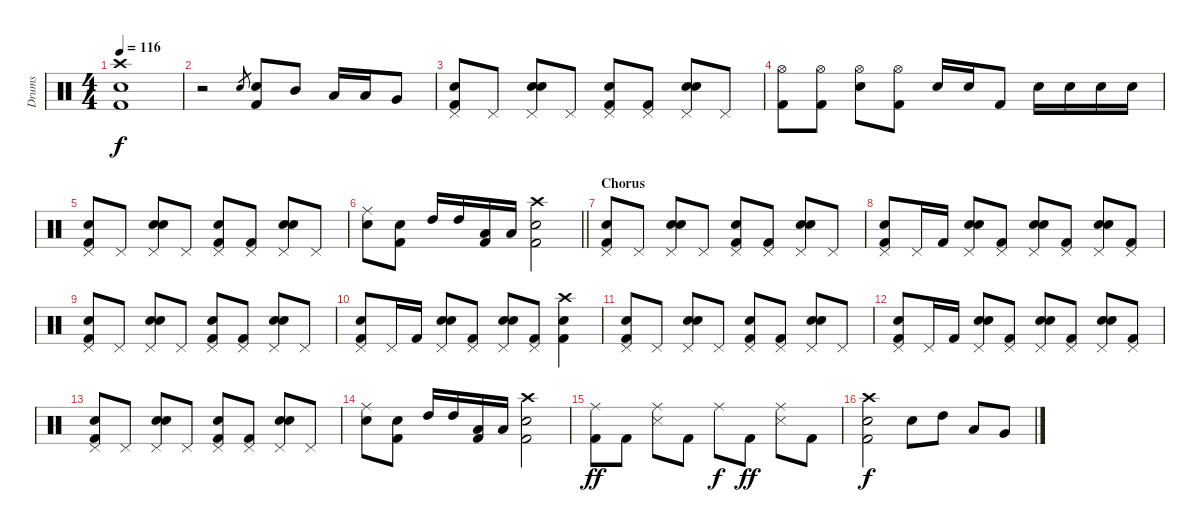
\track ("Drums" "Drums") {instrument percussion}
\staff {score}
\articulation defaults
\ts (4 4)
\tempo 116
\clef neutral
\ks c
("Crash high (hit)" "Electric Snare (hit)" "Kick (hit) 2").1{dy f} |
r.2 "Snare (hit) 2".8{gr} ("Snare (hit) 2" "Kick (hit) 2").8 "Mid Tom (hit)".8 "Low Tom (hit)".16 "Low Tom (hit)".16 "Very Low Tom (hit)".8 |
("Hand Clap (hit)" "Pedal Hi-Hat (hit)" "Kick (hit) 2").8{volume 16} "Pedal Hi-Hat (hit)".8{volume 16} ("Hand Clap (hit)" "Pedal Hi-Hat (hit)" "Snare (hit) 2").8{volume 16} "Pedal Hi-Hat (hit)".8{volume 16} ("Hand Clap (hit)" "Pedal Hi-Hat (hit)" "Kick (hit) 2").8{volume 16} ("Pedal Hi-Hat (hit)" "Kick (hit) 2").8{volume 16} ("Hand Clap (hit)" "Pedal Hi-Hat (hit)" "Snare (hit) 2").8{volume 16} "Pedal Hi-Hat (hit)".8{volume 16} |
("Hi-Hat (open)" "Kick (hit) 2").8{volume 16} ("Hi-Hat (open)" "Kick (hit) 2").8{volume 16} ("Hi-Hat (open)" "Snare (hit) 2").8{volume 16} ("Hi-Hat (open)" "Kick (hit) 2").8{volume 16} "Snare (hit) 2".16{volume 16} "Snare (hit) 2".16{volume 16} "Kick (hit) 2".8{volume 16} "Snare (hit) 2".16{volume 16} "Snare (hit) 2".16{volume 16} "Snare (hit) 2".16{volume 16} "Snare (hit) 2".16{volume 16} |
("Hand Clap (hit)" "Pedal Hi-Hat (hit)" "Kick (hit) 2").8{volume 16} "Pedal Hi-Hat (hit)".8{volume 16} ("Hand Clap (hit)" "Pedal Hi-Hat (hit)" "Snare (hit) 2").8{volume 16} "Pedal Hi-Hat (hit)".8{volume 16} ("Hand Clap (hit)" "Pedal Hi-Hat (hit)" "Kick (hit) 2").8{volume 16} ("Pedal Hi-Hat (hit)" "Kick (hit) 2").8{volume 16} ("Hand Clap (hit)" "Pedal Hi-Hat (hit)" "Snare (hit) 2").8{volume 16} "Pedal Hi-Hat (hit)".8{volume 16} |
\barLineRight lightlight
("Ride (middle)" "Snare (hit) 2").8{volume 16} ("Snare (hit) 2" "Kick (hit) 2").8{volume 16} "High Tom (hit)".16{volume 16} "High Tom (hit)".16{volume 16} ("Low Tom (hit)" "Kick (hit) 2").16{volume 16} "Low Tom (hit)".16{volume 16} ("Crash high (hit)" "Electric Snare (hit)" "Kick (hit) 2").2{volume 16} |
\section ("" "Chorus")
("Hand Clap (hit)" "Pedal Hi-Hat (hit)" "Kick (hit) 2").8{volume 16} "Pedal Hi-Hat (hit)".8{volume 16} ("Hand Clap (hit)" "Pedal Hi-Hat (hit)" "Snare (hit) 2").8{volume 16} "Pedal Hi-Hat (hit)".8{volume 16} ("Hand Clap (hit)" "Pedal Hi-Hat (hit)" "Kick (hit) 2").8{volume 16} ("Pedal Hi-Hat (hit)" "Kick (hit) 2").8{volume 16} ("Hand Clap (hit)" "Pedal Hi-Hat (hit)" "Snare (hit) 2").8{volume 16} "Pedal Hi-Hat (hit)".8{volume 16} |
("Hand Clap (hit)" "Pedal Hi-Hat (hit)" "Kick (hit) 2").8{volume 16} "Pedal Hi-Hat (hit)".16{volume 16} "Kick (hit) 2".16{volume 16} ("Hand Clap (hit)" "Pedal Hi-Hat (hit)" "Snare (hit) 2").8{volume 16} ("Pedal Hi-Hat (hit)" "Kick (hit) 2").8{volume 16} ("Hand Clap (hit)" "Pedal Hi-Hat (hit)" "Snare (hit) 2").8{volume 16} ("Pedal Hi-Hat (hit)" "Kick (hit) 2").8{volume 16} ("Hand Clap (hit)" "Pedal Hi-Hat (hit)" "Snare (hit) 2").8{volume 16} ("Pedal Hi-Hat (hit)" "Kick (hit) 2").8{volume 16} |
("Hand Clap (hit)" "Pedal Hi-Hat (hit)" "Kick (hit) 2").8{volume 16} "Pedal Hi-Hat (hit)".8{volume 16} ("Hand Clap (hit)" "Pedal Hi-Hat (hit)" "Snare (hit) 2").8{volume 16} "Pedal Hi-Hat (hit)".8{volume 16} ("Hand Clap (hit)" "Pedal Hi-Hat (hit)" "Kick (hit) 2").8{volume 16} ("Pedal Hi-Hat (hit)" "Kick (hit) 2").8{volume 16} ("Hand Clap (hit)" "Pedal Hi-Hat (hit)" "Snare (hit) 2").8{volume 16} "Pedal Hi-Hat (hit)".8{volume 16} |
("Hand Clap (hit)" "Pedal Hi-Hat (hit)" "Kick (hit) 2").8{volume 16} "Pedal Hi-Hat (hit)".16{volume 16} "Kick (hit) 2".16{volume 16} ("Hand Clap (hit)" "Pedal Hi-Hat (hit)" "Snare (hit) 2").8{volume 16} ("Pedal Hi-Hat (hit)" "Kick (hit) 2").8{volume 16} ("Hand Clap (hit)" "Pedal Hi-Hat (hit)" "Snare (hit) 2").8{volume 16} ("Pedal Hi-Hat (hit)" "Kick (hit) 2").8{volume 16} ("Crash high (hit)" "Electric Snare (hit)" "Kick (hit) 2").4{volume 16} |
("Hand Clap (hit)" "Pedal Hi-Hat (hit)" "Kick (hit) 2").8{volume 16} "Pedal Hi-Hat (hit)".8{volume 16} ("Hand Clap (hit)" "Pedal Hi-Hat (hit)" "Snare (hit) 2").8{volume 16} "Pedal Hi-Hat (hit)".8{volume 16} ("Hand Clap (hit)" "Pedal Hi-Hat (hit)" "Kick (hit) 2").8{volume 16} ("Pedal Hi-Hat (hit)" "Kick (hit) 2").8{volume 16} ("Hand Clap (hit)" "Pedal Hi-Hat (hit)" "Snare (hit) 2").8{volume 16} "Pedal Hi-Hat (hit)".8{volume 16} |
("Hand Clap (hit)" "Pedal Hi-Hat (hit)" "Kick (hit) 2").8{volume 16} "Pedal Hi-Hat (hit)".16{volume 16} "Kick (hit) 2".16{volume 16} ("Hand Clap (hit)" "Pedal Hi-Hat (hit)" "Snare (hit) 2").8{volume 16} ("Pedal Hi-Hat (hit)" "Kick (hit) 2").8{volume 16} ("Hand Clap (hit)" "Pedal Hi-Hat (hit)" "Snare (hit) 2").8{volume 16} ("Pedal Hi-Hat (hit)" "Kick (hit) 2").8{volume 16} ("Hand Clap (hit)" "Pedal Hi-Hat (hit)" "Snare (hit) 2").8{volume 16} ("Pedal Hi-Hat (hit)" "Kick (hit) 2").8 |
("Hand Clap (hit)" "Pedal Hi-Hat (hit)" "Kick (hit) 2").8{volume 16} "Pedal Hi-Hat (hit)".8{volume 16} ("Hand Clap (hit)" "Pedal Hi-Hat (hit)" "Snare (hit) 2").8{volume 16} "Pedal Hi-Hat (hit)".8{volume 16} ("Hand Clap (hit)" "Pedal Hi-Hat (hit)" "Kick (hit) 2").8{volume 16} ("Pedal Hi-Hat (hit)" "Kick (hit) 2").8{volume 16} ("Hand Clap (hit)" "Pedal Hi-Hat (hit)" "Snare (hit) 2").8{volume 16} "Pedal Hi-Hat (hit)".8{volume 16} |
("Ride (middle)" "Snare (hit) 2").8{volume 16} ("Snare (hit) 2" "Kick (hit) 2").8{volume 16} "High Tom (hit)".16{volume 16} "High Tom (hit)".16{volume 16} ("Low Tom (hit)" "Kick (hit) 2").16{volume 9} "Low Tom (hit)".16 ("Crash high (hit)" "Electric Snare (hit)" "Kick (hit) 2").2 |
("Ride (middle)" "Kick (hit) 2").8{dy ff} "Kick (hit) 2".8 ("Ride (middle)" "Snare (side stick) 3").8 "Kick (hit) 2".8 "Ride (middle)".8{dy f} "Kick (hit) 2".8{dy ff} ("Ride (middle)" "Snare (side stick) 3").8 "Kick (hit) 2".8 |
("Crash high (hit)" "Snare (hit) 2" "Kick (hit) 2").2{dy f} "Snare (hit) 2".8 "High Tom (hit)".8 "Low Tom (hit)".8 "Very Low Tom (hit)".8
